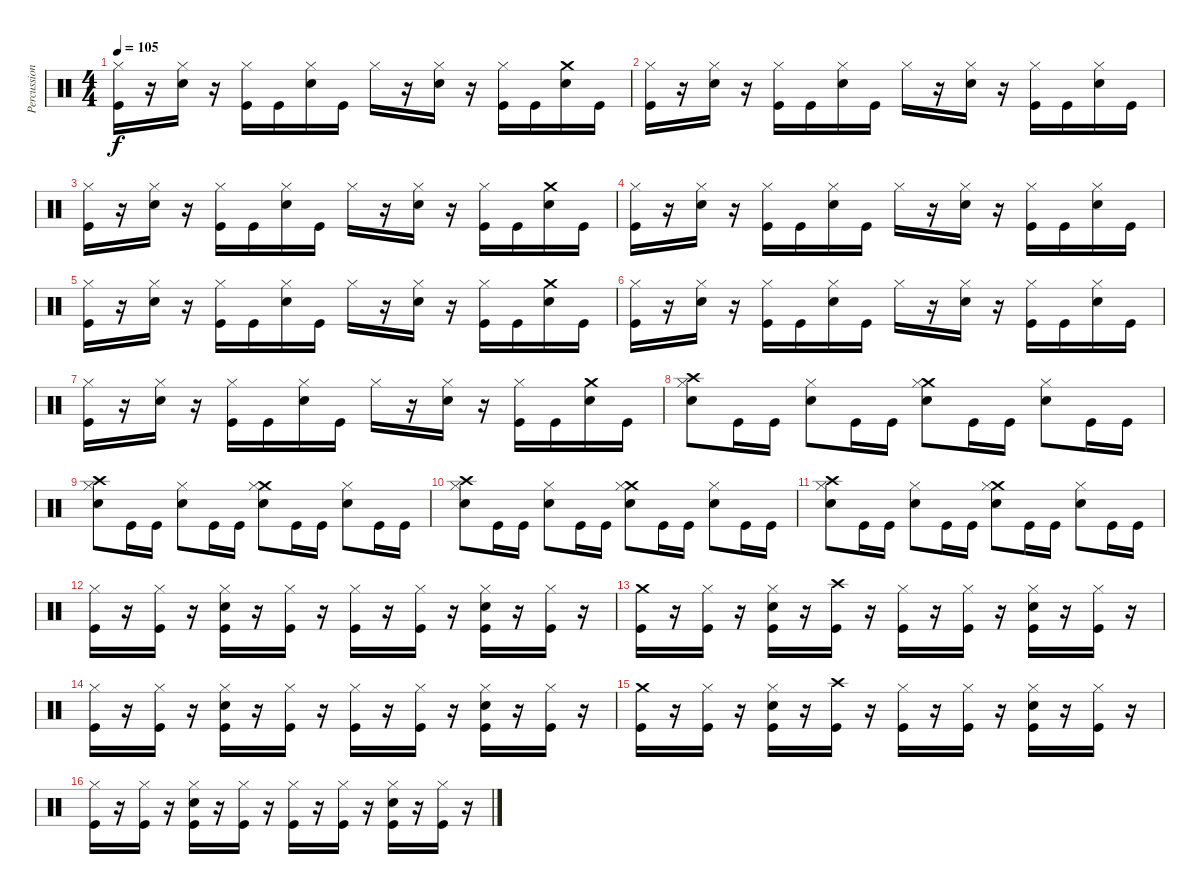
\track ("Percussion" "Percussion") {instrument percussion}
\staff {score}
\articulation defaults
\ts (4 4)
\tempo 105
\clef neutral
\ks c
("Hi-Hat (closed)" "Kick (hit)").16{dy f} r.16 ("Hi-Hat (closed)" "Snare (hit) 2").16 r.16 ("Hi-Hat (closed)" "Kick (hit)").16 "Kick (hit)".16 ("Hi-Hat (closed)" "Snare (hit) 2").16 "Kick (hit)".16 "Hi-Hat (closed)".16 r.16 ("Hi-Hat (closed)" "Snare (hit) 2").16 r.16 ("Hi-Hat (closed)" "Kick (hit)").16 "Kick (hit)".16 ("Crash medium (hit)" "Snare (hit) 2").16 "Kick (hit)".16 |
("Hi-Hat (closed)" "Kick (hit)").16 r.16 ("Hi-Hat (closed)" "Snare (hit) 2").16 r.16 ("Hi-Hat (closed)" "Kick (hit)").16 "Kick (hit)".16 ("Hi-Hat (closed)" "Snare (hit) 2").16 "Kick (hit)".16 "Hi-Hat (closed)".16 r.16 ("Hi-Hat (closed)" "Snare (hit) 2").16 r.16 ("Hi-Hat (closed)" "Kick (hit)").16 "Kick (hit)".16 ("Hi-Hat (closed)" "Snare (hit) 2").16 "Kick (hit)".16 |
("Hi-Hat (closed)" "Kick (hit)").16 r.16 ("Hi-Hat (closed)" "Snare (hit) 2").16 r.16 ("Hi-Hat (closed)" "Kick (hit)").16 "Kick (hit)".16 ("Hi-Hat (closed)" "Snare (hit) 2").16 "Kick (hit)".16 "Hi-Hat (closed)".16 r.16 ("Hi-Hat (closed)" "Snare (hit) 2").16 r.16 ("Hi-Hat (closed)" "Kick (hit)").16 "Kick (hit)".16 ("Crash medium (hit)" "Snare (hit) 2").16 "Kick (hit)".16 |
("Hi-Hat (closed)" "Kick (hit)").16 r.16 ("Hi-Hat (closed)" "Snare (hit) 2").16 r.16 ("Hi-Hat (closed)" "Kick (hit)").16 "Kick (hit)".16 ("Hi-Hat (closed)" "Snare (hit) 2").16 "Kick (hit)".16 "Hi-Hat (closed)".16 r.16 ("Hi-Hat (closed)" "Snare (hit) 2").16 r.16 ("Hi-Hat (closed)" "Kick (hit)").16 "Kick (hit)".16 ("Hi-Hat (closed)" "Snare (hit) 2").16 "Kick (hit)".16 |
("Hi-Hat (closed)" "Kick (hit)").16 r.16 ("Hi-Hat (closed)" "Snare (hit) 2").16 r.16 ("Hi-Hat (closed)" "Kick (hit)").16 "Kick (hit)".16 ("Hi-Hat (closed)" "Snare (hit) 2").16 "Kick (hit)".16 "Hi-Hat (closed)".16 r.16 ("Hi-Hat (closed)" "Snare (hit) 2").16 r.16 ("Hi-Hat (closed)" "Kick (hit)").16 "Kick (hit)".16 ("Crash medium (hit)" "Snare (hit) 2").16 "Kick (hit)".16 |
("Hi-Hat (closed)" "Kick (hit)").16 r.16 ("Hi-Hat (closed)" "Snare (hit) 2").16 r.16 ("Hi-Hat (closed)" "Kick (hit)").16 "Kick (hit)".16 ("Hi-Hat (closed)" "Snare (hit) 2").16 "Kick (hit)".16 "Hi-Hat (closed)".16 r.16 ("Hi-Hat (closed)" "Snare (hit) 2").16 r.16 ("Hi-Hat (closed)" "Kick (hit)").16 "Kick (hit)".16 ("Hi-Hat (closed)" "Snare (hit) 2").16 "Kick (hit)".16 |
("Hi-Hat (closed)" "Kick (hit)").16 r.16 ("Hi-Hat (closed)" "Snare (hit) 2").16 r.16 ("Hi-Hat (closed)" "Kick (hit)").16 "Kick (hit)".16 ("Hi-Hat (closed)" "Snare (hit) 2").16 "Kick (hit)".16 "Hi-Hat (closed)".16 r.16 ("Hi-Hat (closed)" "Snare (hit) 2").16 r.16 ("Hi-Hat (closed)" "Kick (hit)").16 "Kick (hit)".16 ("Crash medium (hit)" "Snare (hit) 2").16 "Kick (hit)".16 |
("Crash high (hit)" "Hi-Hat (closed)" "Snare (hit) 2").8 "Kick (hit)".16 "Kick (hit)".16 ("Hi-Hat (closed)" "Snare (hit) 2").8 "Kick (hit)".16 "Kick (hit)".16 ("Crash medium (hit)" "Hi-Hat (closed)" "Snare (hit) 2").8 "Kick (hit)".16 "Kick (hit)".16 ("Hi-Hat (closed)" "Snare (hit) 2").8 "Kick (hit)".16 "Kick (hit)".16 |
("Crash high (hit)" "Hi-Hat (closed)" "Snare (hit) 2").8 "Kick (hit)".16 "Kick (hit)".16 ("Hi-Hat (closed)" "Snare (hit) 2").8 "Kick (hit)".16 "Kick (hit)".16 ("Crash medium (hit)" "Hi-Hat (closed)" "Snare (hit) 2").8 "Kick (hit)".16 "Kick (hit)".16 ("Hi-Hat (closed)" "Snare (hit) 2").8 "Kick (hit)".16 "Kick (hit)".16 |
("Crash high (hit)" "Hi-Hat (closed)" "Snare (hit) 2").8 "Kick (hit)".16 "Kick (hit)".16 ("Hi-Hat (closed)" "Snare (hit) 2").8 "Kick (hit)".16 "Kick (hit)".16 ("Crash medium (hit)" "Hi-Hat (closed)" "Snare (hit) 2").8 "Kick (hit)".16 "Kick (hit)".16 ("Hi-Hat (closed)" "Snare (hit) 2").8 "Kick (hit)".16 "Kick (hit)".16 |
("Crash high (hit)" "Hi-Hat (closed)" "Snare (hit) 2").8 "Kick (hit)".16 "Kick (hit)".16 ("Hi-Hat (closed)" "Snare (hit) 2").8 "Kick (hit)".16 "Kick (hit)".16 ("Crash medium (hit)" "Hi-Hat (closed)" "Snare (hit) 2").8 "Kick (hit)".16 "Kick (hit)".16 ("Hi-Hat (closed)" "Snare (hit) 2").8 "Kick (hit)".16 "Kick (hit)".16 |
("Hi-Hat (closed)" "Kick (hit)").16 r.16 ("Hi-Hat (closed)" "Kick (hit)").16 r.16 ("Hi-Hat (closed)" "Snare (hit) 2" "Kick (hit)").16 r.16 ("Hi-Hat (closed)" "Kick (hit)").16 r.16 ("Hi-Hat (closed)" "Kick (hit)").16 r.16 ("Hi-Hat (closed)" "Kick (hit)").16 r.16 ("Hi-Hat (closed)" "Snare (hit) 2" "Kick (hit)").16 r.16 ("Hi-Hat (closed)" "Kick (hit)").16 r.16 |
("Crash medium (hit)" "Kick (hit)").16 r.16 ("Hi-Hat (closed)" "Kick (hit)").16 r.16 ("Hi-Hat (closed)" "Snare (hit) 2" "Kick (hit)").16 r.16 ("Crash high (hit)" "Kick (hit)").16 r.16 ("Hi-Hat (closed)" "Kick (hit)").16 r.16 ("Hi-Hat (closed)" "Kick (hit)").16 r.16 ("Hi-Hat (closed)" "Snare (hit) 2" "Kick (hit)").16 r.16 ("Hi-Hat (closed)" "Kick (hit)").16 r.16 |
("Hi-Hat (closed)" "Kick (hit)").16 r.16 ("Hi-Hat (closed)" "Kick (hit)").16 r.16 ("Hi-Hat (closed)" "Snare (hit) 2" "Kick (hit)").16 r.16 ("Hi-Hat (closed)" "Kick (hit)").16 r.16 ("Hi-Hat (closed)" "Kick (hit)").16 r.16 ("Hi-Hat (closed)" "Kick (hit)").16 r.16 ("Hi-Hat (closed)" "Snare (hit) 2" "Kick (hit)").16 r.16 ("Hi-Hat (closed)" "Kick (hit)").16 r.16 |
("Crash medium (hit)" "Kick (hit)").16 r.16 ("Hi-Hat (closed)" "Kick (hit)").16 r.16 ("Hi-Hat (closed)" "Snare (hit) 2" "Kick (hit)").16 r.16 ("Crash high (hit)" "Kick (hit)").16 r.16 ("Hi-Hat (closed)" "Kick (hit)").16 r.16 ("Hi-Hat (closed)" "Kick (hit)").16 r.16 ("Hi-Hat (closed)" "Snare (hit) 2" "Kick (hit)").16 r.16 ("Hi-Hat (closed)" "Kick (hit)").16 r.16 |
("Hi-Hat (closed)" "Kick (hit)").16 r.16 ("Hi-Hat (closed)" "Kick (hit)").16 r.16 ("Hi-Hat (closed)" "Snare (hit) 2" "Kick (hit)").16 r.16 ("Hi-Hat (closed)" "Kick (hit)").16 r.16 ("Hi-Hat (closed)" "Kick (hit)").16 r.16 ("Hi-Hat (closed)" "Kick (hit)").16 r.16 ("Hi-Hat (closed)" "Snare (hit) 2" "Kick (hit)").16 r.16 ("Hi-Hat (closed)" "Kick (hit)").16 r.16
